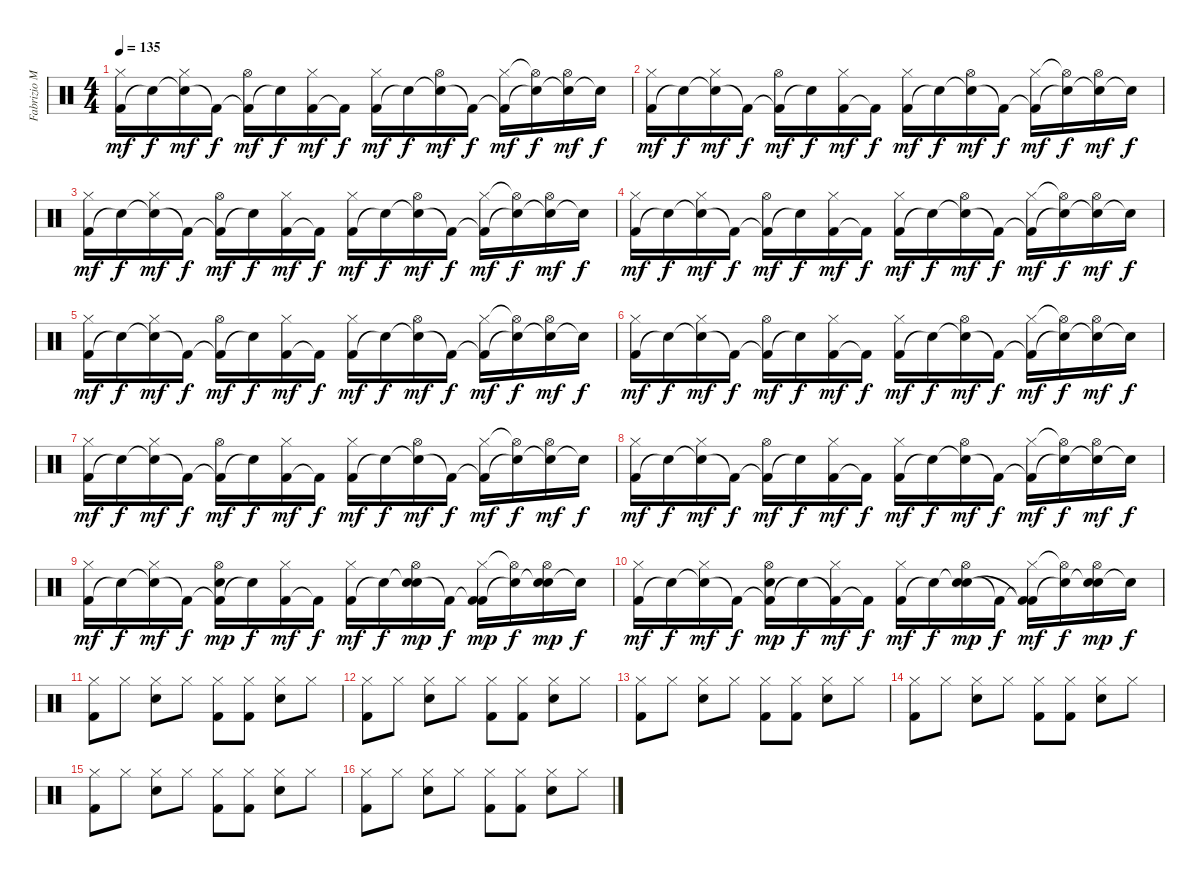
\track ("Fabrizio Moretti" "Fabrizio M") {instrument percussion}
\staff {score}
\articulation defaults
\ts (4 4)
\tempo 135
\clef neutral
\ks c
("Kick (hit) 2" "Hi-Hat (closed)").16{dy mf} "Snare (hit)"{t}.16{dy f} ("Snare (hit)"{t} "Hi-Hat (closed)").16{dy mf} "Kick (hit) 2"{t}.16{dy f} ("Kick (hit) 2"{t} "Hi-Hat (open)").16{dy mf} "Snare (hit)"{t}.16{dy f} ("Kick (hit) 2" "Hi-Hat (closed)").16{dy mf} "Kick (hit) 2"{t}.16{dy f} ("Kick (hit) 2" "Hi-Hat (closed)").16{dy mf} "Snare (hit)"{t}.16{dy f} ("Snare (hit)"{t} "Hi-Hat (open)").16{dy mf} "Kick (hit) 2"{t}.16{dy f} ("Kick (hit) 2"{t} "Hi-Hat (closed)").16{dy mf} ("Snare (hit)"{t} "Hi-Hat (open)"{t}).16{dy f} ("Snare (hit)"{t} "Hi-Hat (open)").16{dy mf} "Snare (hit)"{t}.16{dy f} |
("Kick (hit) 2" "Hi-Hat (closed)").16{dy mf} "Snare (hit)"{t}.16{dy f} ("Snare (hit)"{t} "Hi-Hat (closed)").16{dy mf} "Kick (hit) 2"{t}.16{dy f} ("Kick (hit) 2"{t} "Hi-Hat (open)").16{dy mf} "Snare (hit)"{t}.16{dy f} ("Kick (hit) 2" "Hi-Hat (closed)").16{dy mf} "Kick (hit) 2"{t}.16{dy f} ("Kick (hit) 2" "Hi-Hat (closed)").16{dy mf} "Snare (hit)"{t}.16{dy f} ("Snare (hit)"{t} "Hi-Hat (open)").16{dy mf} "Kick (hit) 2"{t}.16{dy f} ("Kick (hit) 2"{t} "Hi-Hat (closed)").16{dy mf} ("Snare (hit)"{t} "Hi-Hat (open)"{t}).16{dy f} ("Snare (hit)"{t} "Hi-Hat (open)").16{dy mf} "Snare (hit)"{t}.16{dy f} |
("Kick (hit) 2" "Hi-Hat (closed)").16{dy mf} "Snare (hit)"{t}.16{dy f} ("Snare (hit)"{t} "Hi-Hat (closed)").16{dy mf} "Kick (hit) 2"{t}.16{dy f} ("Kick (hit) 2"{t} "Hi-Hat (open)").16{dy mf} "Snare (hit)"{t}.16{dy f} ("Kick (hit) 2" "Hi-Hat (closed)").16{dy mf} "Kick (hit) 2"{t}.16{dy f} ("Kick (hit) 2" "Hi-Hat (closed)").16{dy mf} "Snare (hit)"{t}.16{dy f} ("Snare (hit)"{t} "Hi-Hat (open)").16{dy mf} "Kick (hit) 2"{t}.16{dy f} ("Kick (hit) 2"{t} "Hi-Hat (closed)").16{dy mf} ("Snare (hit)"{t} "Hi-Hat (open)"{t}).16{dy f} ("Snare (hit)"{t} "Hi-Hat (open)").16{dy mf} "Snare (hit)"{t}.16{dy f} |
("Kick (hit) 2" "Hi-Hat (closed)").16{dy mf} "Snare (hit)"{t}.16{dy f} ("Snare (hit)"{t} "Hi-Hat (closed)").16{dy mf} "Kick (hit) 2"{t}.16{dy f} ("Kick (hit) 2"{t} "Hi-Hat (open)").16{dy mf} "Snare (hit)"{t}.16{dy f} ("Kick (hit) 2" "Hi-Hat (closed)").16{dy mf} "Kick (hit) 2"{t}.16{dy f} ("Kick (hit) 2" "Hi-Hat (closed)").16{dy mf} "Snare (hit)"{t}.16{dy f} ("Snare (hit)"{t} "Hi-Hat (open)").16{dy mf} "Kick (hit) 2"{t}.16{dy f} ("Kick (hit) 2"{t} "Hi-Hat (closed)").16{dy mf} ("Snare (hit)"{t} "Hi-Hat (open)"{t}).16{dy f} ("Snare (hit)"{t} "Hi-Hat (open)").16{dy mf} "Snare (hit)"{t}.16{dy f} |
("Kick (hit) 2" "Hi-Hat (closed)").16{dy mf} "Snare (hit)"{t}.16{dy f} ("Snare (hit)"{t} "Hi-Hat (closed)").16{dy mf} "Kick (hit) 2"{t}.16{dy f} ("Kick (hit) 2"{t} "Hi-Hat (open)").16{dy mf} "Snare (hit)"{t}.16{dy f} ("Kick (hit) 2" "Hi-Hat (closed)").16{dy mf} "Kick (hit) 2"{t}.16{dy f} ("Kick (hit) 2" "Hi-Hat (closed)").16{dy mf} "Snare (hit)"{t}.16{dy f} ("Snare (hit)"{t} "Hi-Hat (open)").16{dy mf} "Kick (hit) 2"{t}.16{dy f} ("Kick (hit) 2"{t} "Hi-Hat (closed)").16{dy mf} ("Snare (hit)"{t} "Hi-Hat (open)"{t}).16{dy f} ("Snare (hit)"{t} "Hi-Hat (open)").16{dy mf} "Snare (hit)"{t}.16{dy f} |
("Kick (hit) 2" "Hi-Hat (closed)").16{dy mf} "Snare (hit)"{t}.16{dy f} ("Snare (hit)"{t} "Hi-Hat (closed)").16{dy mf} "Kick (hit) 2"{t}.16{dy f} ("Kick (hit) 2"{t} "Hi-Hat (open)").16{dy mf} "Snare (hit)"{t}.16{dy f} ("Kick (hit) 2" "Hi-Hat (closed)").16{dy mf} "Kick (hit) 2"{t}.16{dy f} ("Kick (hit) 2" "Hi-Hat (closed)").16{dy mf} "Snare (hit)"{t}.16{dy f} ("Snare (hit)"{t} "Hi-Hat (open)").16{dy mf} "Kick (hit) 2"{t}.16{dy f} ("Kick (hit) 2"{t} "Hi-Hat (closed)").16{dy mf} ("Snare (hit)"{t} "Hi-Hat (open)"{t}).16{dy f} ("Snare (hit)"{t} "Hi-Hat (open)").16{dy mf} "Snare (hit)"{t}.16{dy f} |
("Kick (hit) 2" "Hi-Hat (closed)").16{dy mf} "Snare (hit)"{t}.16{dy f} ("Snare (hit)"{t} "Hi-Hat (closed)").16{dy mf} "Kick (hit) 2"{t}.16{dy f} ("Kick (hit) 2"{t} "Hi-Hat (open)").16{dy mf} "Snare (hit)"{t}.16{dy f} ("Kick (hit) 2" "Hi-Hat (closed)").16{dy mf} "Kick (hit) 2"{t}.16{dy f} ("Kick (hit) 2" "Hi-Hat (closed)").16{dy mf} "Snare (hit)"{t}.16{dy f} ("Snare (hit)"{t} "Hi-Hat (open)").16{dy mf} "Kick (hit) 2"{t}.16{dy f} ("Kick (hit) 2"{t} "Hi-Hat (closed)").16{dy mf} ("Snare (hit)"{t} "Hi-Hat (open)"{t}).16{dy f} ("Snare (hit)"{t} "Hi-Hat (open)").16{dy mf} "Snare (hit)"{t}.16{dy f} |
("Kick (hit) 2" "Hi-Hat (closed)").16{dy mf} "Snare (hit)"{t}.16{dy f} ("Snare (hit)"{t} "Hi-Hat (closed)").16{dy mf} "Kick (hit) 2"{t}.16{dy f} ("Kick (hit) 2"{t} "Hi-Hat (open)").16{dy mf} "Snare (hit)"{t}.16{dy f} ("Kick (hit) 2" "Hi-Hat (closed)").16{dy mf} "Kick (hit) 2"{t}.16{dy f} ("Kick (hit) 2" "Hi-Hat (closed)").16{dy mf} "Snare (hit)"{t}.16{dy f} ("Snare (hit)"{t} "Hi-Hat (open)").16{dy mf} "Kick (hit) 2"{t}.16{dy f} ("Kick (hit) 2"{t} "Hi-Hat (closed)").16{dy mf} ("Snare (hit)"{t} "Hi-Hat (open)"{t}).16{dy f} ("Snare (hit)"{t} "Hi-Hat (open)").16{dy mf} "Snare (hit)"{t}.16{dy f} |
("Kick (hit) 2" "Hi-Hat (closed)").16{dy mf} "Snare (hit)"{t}.16{dy f} ("Snare (hit)"{t} "Hi-Hat (closed)").16{dy mf} "Kick (hit) 2"{t}.16{dy f} ("Kick (hit) 2"{t} "Hi-Hat (open)" "Electric Snare (hit)").16{dy mp} "Snare (hit)"{t}.16{dy f} ("Kick (hit) 2" "Hi-Hat (closed)").16{dy mf} "Kick (hit) 2"{t}.16{dy f} ("Kick (hit) 2" "Hi-Hat (closed)").16{dy mf} "Snare (hit)"{t}.16{dy f} ("Snare (hit)"{t} "Hi-Hat (open)" "Electric Snare (hit)").16{dy mp} "Kick (hit) 2"{t}.16{dy f} ("Kick (hit) 2"{t} "Hi-Hat (closed)" "Kick (hit) 2").16{dy mp} ("Snare (hit)"{t} "Hi-Hat (open)"{t}).16{dy f} ("Snare (hit)"{t} "Hi-Hat (open)" "Electric Snare (hit)").16{dy mp} "Snare (hit)"{t}.16{dy f} |
("Kick (hit) 2" "Hi-Hat (closed)").16{dy mf} "Snare (hit)"{t}.16{dy f} ("Snare (hit)"{t} "Hi-Hat (closed)").16{dy mf} "Kick (hit) 2"{t}.16{dy f} ("Kick (hit) 2"{t} "Hi-Hat (open)" "Electric Snare (hit)").16{dy mp} "Snare (hit)"{t}.16{dy f} ("Kick (hit) 2"{t} "Hi-Hat (closed)").16{dy mf} "Kick (hit) 2"{t}.16{dy f} ("Kick (hit) 2" "Hi-Hat (closed)").16{dy mf} "Snare (hit)"{t}.16{dy f} ("Snare (hit)"{t} "Hi-Hat (open)" "Electric Snare (hit)").16{dy mp} "Kick (hit) 2"{t}.16{dy f} ("Kick (hit) 2"{t} "Hi-Hat (closed)" "Kick (hit) 2"{t}).16{dy mf} ("Snare (hit)"{t} "Hi-Hat (open)"{t}).16{dy f} ("Snare (hit)"{t} "Hi-Hat (open)" "Electric Snare (hit)").16{dy mp} "Snare (hit)"{t}.16{dy f} |
("Hi-Hat (closed)" "Kick (hit) 2").8 "Hi-Hat (closed)".8 ("Hi-Hat (closed)" "Electric Snare (hit)").8 "Hi-Hat (closed)".8 ("Hi-Hat (closed)" "Kick (hit) 2").8 ("Hi-Hat (closed)" "Kick (hit) 2").8 ("Hi-Hat (closed)" "Electric Snare (hit)").8 "Hi-Hat (closed)".8 |
("Hi-Hat (closed)" "Kick (hit) 2").8 "Hi-Hat (closed)".8 ("Hi-Hat (closed)" "Electric Snare (hit)").8 "Hi-Hat (closed)".8 ("Hi-Hat (closed)" "Kick (hit) 2").8 ("Hi-Hat (closed)" "Kick (hit) 2").8 ("Hi-Hat (closed)" "Electric Snare (hit)").8 "Hi-Hat (closed)".8 |
("Hi-Hat (closed)" "Kick (hit) 2").8 "Hi-Hat (closed)".8 ("Hi-Hat (closed)" "Electric Snare (hit)").8 "Hi-Hat (closed)".8 ("Hi-Hat (closed)" "Kick (hit) 2").8 ("Hi-Hat (closed)" "Kick (hit) 2").8 ("Hi-Hat (closed)" "Electric Snare (hit)").8 "Hi-Hat (closed)".8 |
("Hi-Hat (closed)" "Kick (hit) 2").8 "Hi-Hat (closed)".8 ("Hi-Hat (closed)" "Electric Snare (hit)").8 "Hi-Hat (closed)".8 ("Hi-Hat (closed)" "Kick (hit) 2").8 ("Hi-Hat (closed)" "Kick (hit) 2").8 ("Hi-Hat (closed)" "Electric Snare (hit)").8 "Hi-Hat (closed)".8 |
("Hi-Hat (closed)" "Kick (hit) 2").8 "Hi-Hat (closed)".8 ("Hi-Hat (closed)" "Electric Snare (hit)").8 "Hi-Hat (closed)".8 ("Hi-Hat (closed)" "Kick (hit) 2").8 ("Hi-Hat (closed)" "Kick (hit) 2").8 ("Hi-Hat (closed)" "Electric Snare (hit)").8 "Hi-Hat (closed)".8 |
("Hi-Hat (closed)" "Kick (hit) 2").8 "Hi-Hat (closed)".8 ("Hi-Hat (closed)" "Electric Snare (hit)").8 "Hi-Hat (closed)".8 ("Hi-Hat (closed)" "Kick (hit) 2").8 ("Hi-Hat (closed)" "Kick (hit) 2").8 ("Hi-Hat (closed)" "Electric Snare (hit)").8 "Hi-Hat (closed)".8
